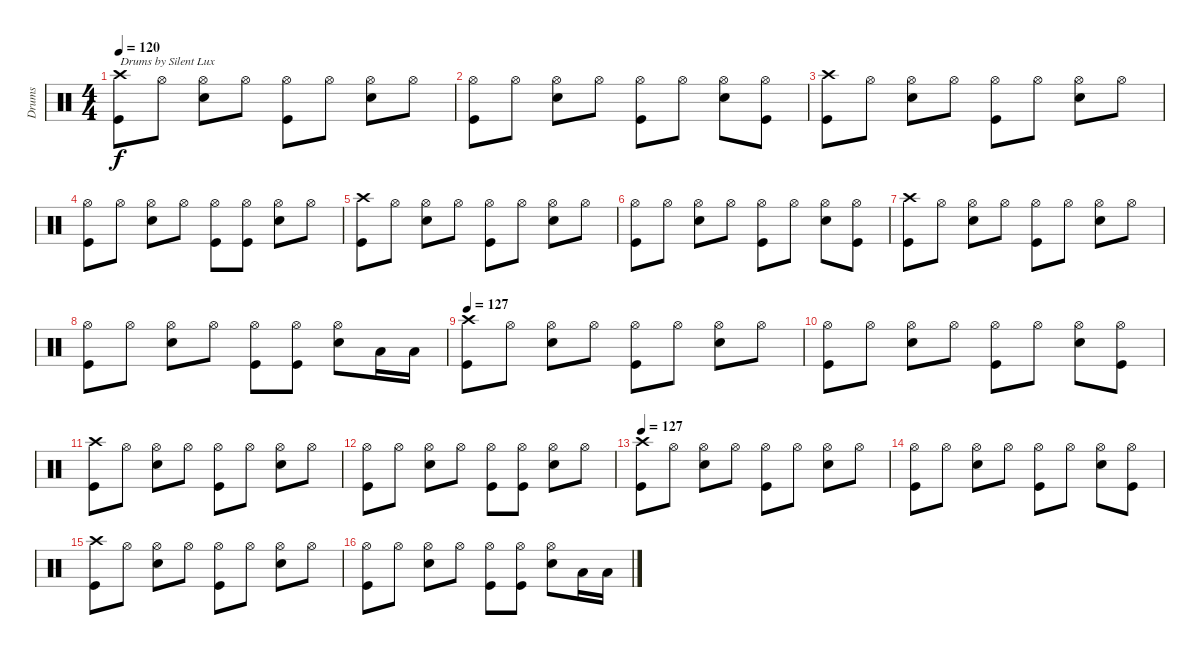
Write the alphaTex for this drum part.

\track ("Drums" "Drums") {instrument percussion}
\staff {score}
\articulation defaults
\ts (4 4)
\tempo 120
\clef neutral
\ks c
("Crash high (hit)" "Kick (hit)").8{txt "Drums by Silent Lux" dy f} "Hi-Hat (open)".8 ("Hi-Hat (open)" "Snare (hit) 2").8 "Hi-Hat (open)".8 ("Hi-Hat (open)" "Kick (hit)").8 "Hi-Hat (open)".8 ("Hi-Hat (open)" "Snare (hit) 2").8 "Hi-Hat (open)".8 |
("Hi-Hat (open)" "Kick (hit)").8 "Hi-Hat (open)".8 ("Hi-Hat (open)" "Snare (hit) 2").8 "Hi-Hat (open)".8 ("Hi-Hat (open)" "Kick (hit)").8 "Hi-Hat (open)".8 ("Hi-Hat (open)" "Snare (hit) 2").8 ("Hi-Hat (open)" "Kick (hit)").8 |
("Crash high (hit)" "Kick (hit)").8 "Hi-Hat (open)".8 ("Hi-Hat (open)" "Snare (hit) 2").8 "Hi-Hat (open)".8 ("Hi-Hat (open)" "Kick (hit)").8 "Hi-Hat (open)".8 ("Hi-Hat (open)" "Snare (hit) 2").8 "Hi-Hat (open)".8 |
("Hi-Hat (open)" "Kick (hit)").8 "Hi-Hat (open)".8 ("Hi-Hat (open)" "Snare (hit) 2").8 "Hi-Hat (open)".8 ("Hi-Hat (open)" "Kick (hit)").8 ("Hi-Hat (open)" "Kick (hit)").8 ("Hi-Hat (open)" "Snare (hit) 2").8 "Hi-Hat (open)".8 |
("Crash high (hit)" "Kick (hit)").8 "Hi-Hat (open)".8 ("Hi-Hat (open)" "Snare (hit) 2").8 "Hi-Hat (open)".8 ("Hi-Hat (open)" "Kick (hit)").8 "Hi-Hat (open)".8 ("Hi-Hat (open)" "Snare (hit) 2").8 "Hi-Hat (open)".8 |
("Hi-Hat (open)" "Kick (hit)").8 "Hi-Hat (open)".8 ("Hi-Hat (open)" "Snare (hit) 2").8 "Hi-Hat (open)".8 ("Hi-Hat (open)" "Kick (hit)").8 "Hi-Hat (open)".8 ("Hi-Hat (open)" "Snare (hit) 2").8 ("Hi-Hat (open)" "Kick (hit)").8 |
("Crash high (hit)" "Kick (hit)").8 "Hi-Hat (open)".8 ("Hi-Hat (open)" "Snare (hit) 2").8 "Hi-Hat (open)".8 ("Hi-Hat (open)" "Kick (hit)").8 "Hi-Hat (open)".8 ("Hi-Hat (open)" "Snare (hit) 2").8 "Hi-Hat (open)".8 |
("Hi-Hat (open)" "Kick (hit)").8 "Hi-Hat (open)".8 ("Hi-Hat (open)" "Snare (hit) 2").8 "Hi-Hat (open)".8 ("Hi-Hat (open)" "Kick (hit)").8 ("Hi-Hat (open)" "Kick (hit)").8 ("Hi-Hat (open)" "Snare (hit) 2").8 "Low Floor Tom (hit)".16 "Low Floor Tom (hit)".16 |
\tempo 127
("Crash high (hit)" "Kick (hit)").8 "Hi-Hat (open)".8 ("Hi-Hat (open)" "Snare (hit) 2").8 "Hi-Hat (open)".8 ("Hi-Hat (open)" "Kick (hit)").8 "Hi-Hat (open)".8 ("Hi-Hat (open)" "Snare (hit) 2").8 "Hi-Hat (open)".8 |
("Hi-Hat (open)" "Kick (hit)").8 "Hi-Hat (open)".8 ("Hi-Hat (open)" "Snare (hit) 2").8 "Hi-Hat (open)".8 ("Hi-Hat (open)" "Kick (hit)").8 "Hi-Hat (open)".8 ("Hi-Hat (open)" "Snare (hit) 2").8 ("Hi-Hat (open)" "Kick (hit)").8 |
("Crash high (hit)" "Kick (hit)").8 "Hi-Hat (open)".8 ("Hi-Hat (open)" "Snare (hit) 2").8 "Hi-Hat (open)".8 ("Hi-Hat (open)" "Kick (hit)").8 "Hi-Hat (open)".8 ("Hi-Hat (open)" "Snare (hit) 2").8 "Hi-Hat (open)".8 |
("Hi-Hat (open)" "Kick (hit)").8 "Hi-Hat (open)".8 ("Hi-Hat (open)" "Snare (hit) 2").8 "Hi-Hat (open)".8 ("Hi-Hat (open)" "Kick (hit)").8 ("Hi-Hat (open)" "Kick (hit)").8 ("Hi-Hat (open)" "Snare (hit) 2").8 "Hi-Hat (open)".8 |
\tempo 127
("Crash high (hit)" "Kick (hit)").8 "Hi-Hat (open)".8 ("Hi-Hat (open)" "Snare (hit) 2").8 "Hi-Hat (open)".8 ("Hi-Hat (open)" "Kick (hit)").8 "Hi-Hat (open)".8 ("Hi-Hat (open)" "Snare (hit) 2").8 "Hi-Hat (open)".8 |
("Hi-Hat (open)" "Kick (hit)").8 "Hi-Hat (open)".8 ("Hi-Hat (open)" "Snare (hit) 2").8 "Hi-Hat (open)".8 ("Hi-Hat (open)" "Kick (hit)").8 "Hi-Hat (open)".8 ("Hi-Hat (open)" "Snare (hit) 2").8 ("Hi-Hat (open)" "Kick (hit)").8 |
("Crash high (hit)" "Kick (hit)").8 "Hi-Hat (open)".8 ("Hi-Hat (open)" "Snare (hit) 2").8 "Hi-Hat (open)".8 ("Hi-Hat (open)" "Kick (hit)").8 "Hi-Hat (open)".8 ("Hi-Hat (open)" "Snare (hit) 2").8 "Hi-Hat (open)".8 |
("Hi-Hat (open)" "Kick (hit)").8 "Hi-Hat (open)".8 ("Hi-Hat (open)" "Snare (hit) 2").8 "Hi-Hat (open)".8 ("Hi-Hat (open)" "Kick (hit)").8 ("Hi-Hat (open)" "Kick (hit)").8 ("Hi-Hat (open)" "Snare (hit) 2").8 "Low Floor Tom (hit)".16 "Low Floor Tom (hit)".16
